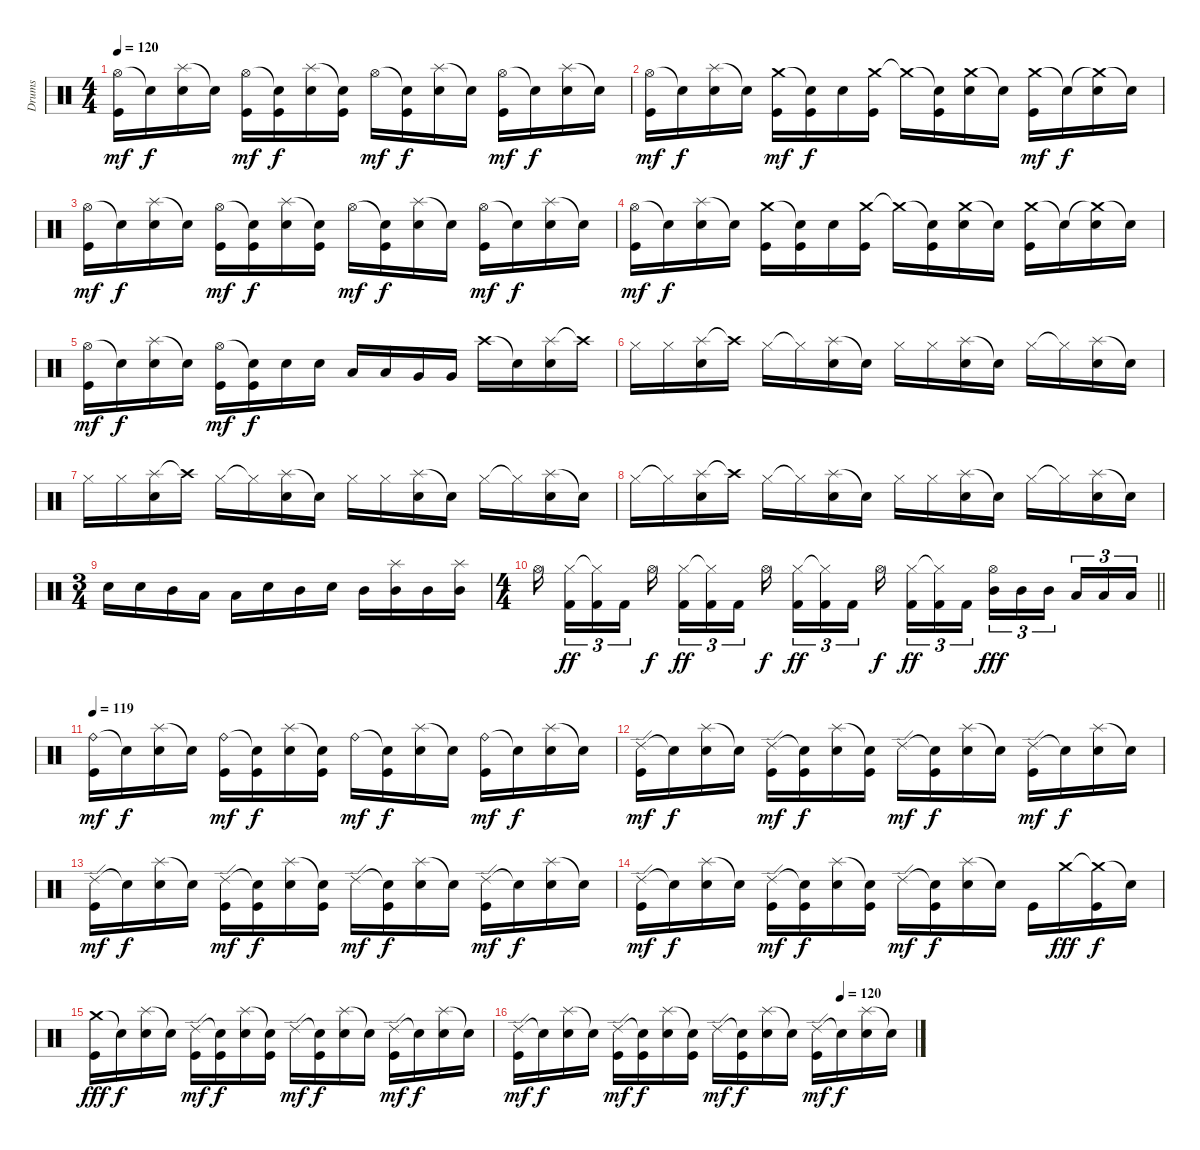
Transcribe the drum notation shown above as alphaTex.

\track ("Drums" "Drums") {instrument percussion}
\staff {score}
\articulation defaults
\ts (4 4)
\tempo 120
\clef neutral
\ks c
("Hi-Hat (open)" "Kick (hit)").16{dy mf} "Snare (hit)"{t}.16{dy f} ("Splash (hit)" "Electric Snare (hit)").16 "Snare (hit)"{t}.16 ("Hi-Hat (open)" "Kick (hit)").16{dy mf} ("Snare (hit)"{t} "Kick (hit)").16{dy f} ("Splash (hit)" "Electric Snare (hit)").16 ("Snare (hit)"{t} "Kick (hit)").16 "Hi-Hat (open)".16{dy mf} ("Snare (hit)"{t} "Kick (hit)").16{dy f} ("Splash (hit)" "Electric Snare (hit)").16 "Snare (hit)"{t}.16 ("Hi-Hat (open)" "Kick (hit)").16{dy mf} "Snare (hit)"{t}.16{dy f} ("Splash (hit)" "Electric Snare (hit)").16 "Snare (hit)"{t}.16 |
("Hi-Hat (open)" "Kick (hit)").16{dy mf} "Snare (hit)"{t}.16{dy f} ("Splash (hit)" "Electric Snare (hit)").16 "Snare (hit)"{t}.16 ("Crash medium (hit)" "Kick (hit)").16{dy mf} ("Snare (hit)"{t} "Kick (hit)").16{dy f} "Electric Snare (hit)".16 ("Crash medium (hit)" "Kick (hit)").16 "Crash medium (hit)"{t}.16 ("Snare (hit)"{t} "Kick (hit)").16 ("Crash medium (hit)" "Electric Snare (hit)").16 "Snare (hit)"{t}.16 ("Crash medium (hit)" "Kick (hit)").16{dy mf} "Snare (hit)"{t}.16{dy f} ("Crash medium (hit)"{t} "Electric Snare (hit)").16 "Snare (hit)"{t}.16 |
("Hi-Hat (open)" "Kick (hit)").16{dy mf} "Snare (hit)"{t}.16{dy f} ("Splash (hit)" "Electric Snare (hit)").16 "Snare (hit)"{t}.16 ("Hi-Hat (open)" "Kick (hit)").16{dy mf} ("Snare (hit)"{t} "Kick (hit)").16{dy f} ("Splash (hit)" "Electric Snare (hit)").16 ("Snare (hit)"{t} "Kick (hit)").16 "Hi-Hat (open)".16{dy mf} ("Snare (hit)"{t} "Kick (hit)").16{dy f} ("Splash (hit)" "Electric Snare (hit)").16 "Snare (hit)"{t}.16 ("Hi-Hat (open)" "Kick (hit)").16{dy mf} "Snare (hit)"{t}.16{dy f} ("Splash (hit)" "Electric Snare (hit)").16 "Snare (hit)"{t}.16 |
("Hi-Hat (open)" "Kick (hit)").16{dy mf} "Snare (hit)"{t}.16{dy f} ("Splash (hit)" "Electric Snare (hit)").16 "Snare (hit)"{t}.16 ("Crash medium (hit)" "Kick (hit)").16 ("Snare (hit)"{t} "Kick (hit)").16 "Electric Snare (hit)".16 ("Crash medium (hit)" "Kick (hit)").16 "Crash medium (hit)"{t}.16 ("Snare (hit)"{t} "Kick (hit)").16 ("Crash medium (hit)" "Electric Snare (hit)").16 "Snare (hit)"{t}.16 ("Crash medium (hit)" "Kick (hit)").16 "Snare (hit)"{t}.16 ("Crash medium (hit)"{t} "Electric Snare (hit)").16 "Snare (hit)"{t}.16 |
("Hi-Hat (open)" "Kick (hit)").16{dy mf} "Snare (hit)"{t}.16{dy f} ("Splash (hit)" "Electric Snare (hit)").16 "Snare (hit)"{t}.16 ("Hi-Hat (open)" "Kick (hit)").16{dy mf} ("Snare (hit)"{t} "Kick (hit)").16{dy f} "Snare (hit) 2".16 "Snare (hit) 2".16 "Low Tom (hit)".16 "Low Tom (hit)".16 "Very Low Tom (hit)".16 "Very Low Tom (hit)".16 "Crash high (hit)".16 "Snare (hit)"{t}.16 ("Splash (hit)" "Electric Snare (hit)").16 "Crash high (hit)"{t}.16 |
"Hi-Hat (closed)".16 "Hi-Hat (closed)".16 ("Splash (hit)" "Electric Snare (hit)").16 "Crash high (hit)"{t}.16 "Hi-Hat (closed)".16 "Hi-Hat (closed)"{t}.16 ("Splash (hit)" "Electric Snare (hit)").16 "Snare (hit)"{t}.16 "Hi-Hat (closed)".16 "Hi-Hat (closed)".16 ("Splash (hit)" "Electric Snare (hit)").16 "Snare (hit)"{t}.16 "Hi-Hat (closed)".16 "Hi-Hat (closed)"{t}.16 ("Splash (hit)" "Electric Snare (hit)").16 "Snare (hit)"{t}.16 |
"Hi-Hat (closed)".16 "Hi-Hat (closed)".16 ("Splash (hit)" "Electric Snare (hit)").16 "Crash high (hit)"{t}.16 "Hi-Hat (closed)".16 "Hi-Hat (closed)"{t}.16 ("Splash (hit)" "Electric Snare (hit)").16 "Snare (hit)"{t}.16 "Hi-Hat (closed)".16 "Hi-Hat (closed)".16 ("Splash (hit)" "Electric Snare (hit)").16 "Snare (hit)"{t}.16 "Hi-Hat (closed)".16 "Hi-Hat (closed)"{t}.16 ("Splash (hit)" "Electric Snare (hit)").16 "Snare (hit)"{t}.16 |
"Hi-Hat (closed)".16 "Hi-Hat (closed)"{t}.16 ("Splash (hit)" "Electric Snare (hit)").16 "Crash high (hit)"{t}.16 "Hi-Hat (closed)".16 "Hi-Hat (closed)"{t}.16 ("Splash (hit)" "Electric Snare (hit)").16 "Snare (hit)"{t}.16 "Hi-Hat (closed)".16 "Hi-Hat (closed)".16 ("Splash (hit)" "Electric Snare (hit)").16 "Snare (hit)"{t}.16 "Hi-Hat (closed)".16 "Hi-Hat (closed)"{t}.16 ("Splash (hit)" "Electric Snare (hit)").16 "Snare (hit)"{t}.16 |
\ts (3 4)
"Snare (hit) 2".16 "Snare (hit) 2".16 "Mid Tom (hit)".16 "Low Tom (hit)".16 "Low Tom (hit)".16 "Snare (hit) 2".16 "Mid Tom (hit)".16 "Snare (hit) 2".16 "Mid Tom (hit)".16 ("Splash (hit)" "Mid Tom (hit)").16 "Mid Tom (hit)".16 ("Splash (hit)" "Mid Tom (hit)").16 |
\ts (4 4)
\barLineRight lightlight "Hi-Hat (open)".16{beam splitsecondary}
("Hi-Hat (closed)" "Kick (hit) 2").16{tu (3 2) dy ff} ("Hi-Hat (closed)"{t} "Kick (hit) 2").16{tu (3 2)} "Kick (hit) 2".16{tu (3 2) beam splitsecondary} "Hi-Hat (open)".16{dy f} ("Hi-Hat (closed)" "Kick (hit) 2").16{tu (3 2) dy ff} ("Hi-Hat (closed)"{t} "Kick (hit) 2").16{tu (3 2)} "Kick (hit) 2".16{tu (3 2) beam splitsecondary} "Hi-Hat (open)".16{dy f beam splitsecondary} ("Hi-Hat (closed)" "Kick (hit) 2").16{tu (3 2) dy ff} ("Hi-Hat (closed)"{t} "Kick (hit) 2").16{tu (3 2)} "Kick (hit) 2".16{tu (3 2) beam splitsecondary} "Hi-Hat (open)".16{dy f beam splitsecondary} ("Hi-Hat (closed)" "Kick (hit) 2").16{tu (3 2) dy ff} ("Hi-Hat (closed)"{t} "Kick (hit) 2").16{tu (3 2)} "Kick (hit) 2".16{tu (3 2)} ("Hi-Hat (open)" "Mid Tom (hit)").16{tu (3 2) dy fff} "Mid Tom (hit)".16{tu (3 2)} "Mid Tom (hit)".16{tu (3 2) beam splitsecondary} "Low Tom (hit)".16{tu (3 2)} "Low Tom (hit)".16{tu (3 2)} "Low Tom (hit)".16{tu (3 2)} |
\section ("" "")
\tempo 119
("Ride (bell)" "Kick (hit)").16{dy mf} "Snare (hit)"{t}.16{dy f} ("Splash (hit)" "Electric Snare (hit)").16 "Snare (hit)"{t}.16 ("Ride (bell)" "Kick (hit)").16{dy mf} ("Snare (hit)"{t} "Kick (hit)").16{dy f} ("Splash (hit)" "Electric Snare (hit)").16 ("Snare (hit)"{t} "Kick (hit)").16 "Ride (bell)".16{dy mf} ("Snare (hit)"{t} "Kick (hit)").16{dy f} ("Splash (hit)" "Electric Snare (hit)").16 "Snare (hit)"{t}.16 ("Ride (bell)" "Kick (hit)").16{dy mf} "Snare (hit)"{t}.16{dy f} ("Splash (hit)" "Electric Snare (hit)").16 "Snare (hit)"{t}.16 |
("Ride (edge) 2" "Kick (hit)").16{dy mf} "Snare (hit)"{t}.16{dy f} ("Splash (hit)" "Electric Snare (hit)").16 "Snare (hit)"{t}.16 ("Ride (edge) 2" "Kick (hit)").16{dy mf} ("Snare (hit)"{t} "Kick (hit)").16{dy f} ("Splash (hit)" "Electric Snare (hit)").16 ("Snare (hit)"{t} "Kick (hit)").16 "Ride (edge) 2".16{dy mf} ("Snare (hit)"{t} "Kick (hit)").16{dy f} ("Splash (hit)" "Electric Snare (hit)").16 "Snare (hit)"{t}.16 ("Ride (edge) 2" "Kick (hit)").16{dy mf} "Snare (hit)"{t}.16{dy f} ("Splash (hit)" "Electric Snare (hit)").16 "Snare (hit)"{t}.16 |
("Ride (edge) 2" "Kick (hit)").16{dy mf} "Snare (hit)"{t}.16{dy f} ("Splash (hit)" "Electric Snare (hit)").16 "Snare (hit)"{t}.16 ("Ride (edge) 2" "Kick (hit)").16{dy mf} ("Snare (hit)"{t} "Kick (hit)").16{dy f} ("Splash (hit)" "Electric Snare (hit)").16 ("Snare (hit)"{t} "Kick (hit)").16 "Ride (edge) 2".16{dy mf} ("Snare (hit)"{t} "Kick (hit)").16{dy f} ("Splash (hit)" "Electric Snare (hit)").16 "Snare (hit)"{t}.16 ("Ride (edge) 2" "Kick (hit)").16{dy mf} "Snare (hit)"{t}.16{dy f} ("Splash (hit)" "Electric Snare (hit)").16 "Snare (hit)"{t}.16 |
("Ride (edge) 2" "Kick (hit)").16{dy mf} "Snare (hit)"{t}.16{dy f} ("Splash (hit)" "Electric Snare (hit)").16 "Snare (hit)"{t}.16 ("Ride (edge) 2" "Kick (hit)").16{dy mf} ("Snare (hit)"{t} "Kick (hit)").16{dy f} ("Splash (hit)" "Electric Snare (hit)").16 ("Snare (hit)"{t} "Kick (hit)").16 "Ride (edge) 2".16{dy mf} ("Snare (hit)"{t} "Kick (hit)").16{dy f} ("Splash (hit)" "Electric Snare (hit)").16 "Snare (hit)"{t}.16 "Kick (hit)".16 "Crash medium (hit)".16{dy fff} ("Crash medium (hit)"{t} "Kick (hit)").16{dy f} "Snare (hit)"{t}.16 |
("Crash medium (hit)" "Kick (hit)").16{dy fff} "Snare (hit)"{t}.16{dy f} ("Splash (hit)" "Electric Snare (hit)").16 "Snare (hit)"{t}.16 ("Ride (edge) 2" "Kick (hit)").16{dy mf} ("Snare (hit)"{t} "Kick (hit)").16{dy f} ("Splash (hit)" "Electric Snare (hit)").16 ("Snare (hit)"{t} "Kick (hit)").16 "Ride (edge) 2".16{dy mf} ("Snare (hit)"{t} "Kick (hit)").16{dy f} ("Splash (hit)" "Electric Snare (hit)").16 "Snare (hit)"{t}.16 ("Ride (edge) 2" "Kick (hit)").16{dy mf} "Snare (hit)"{t}.16{dy f} ("Splash (hit)" "Electric Snare (hit)").16 "Snare (hit)"{t}.16 |
\tempo (120 0.8125)
("Ride (edge) 2" "Kick (hit)").16{dy mf} "Snare (hit)"{t}.16{dy f} ("Splash (hit)" "Electric Snare (hit)").16 "Snare (hit)"{t}.16 ("Ride (edge) 2" "Kick (hit)").16{dy mf} ("Snare (hit)"{t} "Kick (hit)").16{dy f} ("Splash (hit)" "Electric Snare (hit)").16 ("Snare (hit)"{t} "Kick (hit)").16 "Ride (edge) 2".16{dy mf} ("Snare (hit)"{t} "Kick (hit)").16{dy f} ("Splash (hit)" "Electric Snare (hit)").16 "Snare (hit)"{t}.16 ("Ride (edge) 2" "Kick (hit)").16{dy mf} "Snare (hit)"{t}.16{dy f} ("Splash (hit)" "Electric Snare (hit)").16 "Snare (hit)"{t}.16
